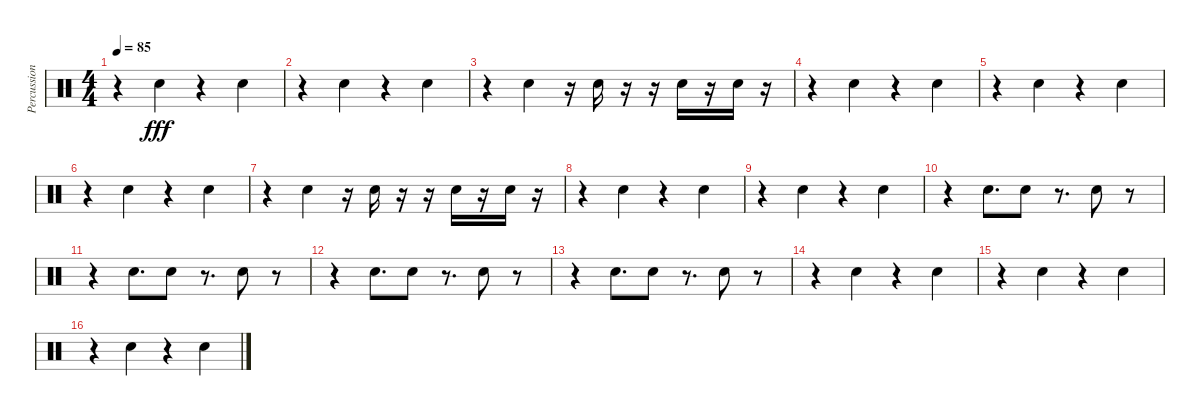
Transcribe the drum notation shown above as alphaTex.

\track ("Percussion" "Percussion") {instrument percussion}
\staff {score}
\articulation defaults
\ts (4 4)
\tempo 85
\clef neutral
\ks c
r.4{dy fff} "Snare (hit) 2".4 r.4 "Snare (hit) 2".4 |
r.4 "Snare (hit) 2".4 r.4 "Snare (hit) 2".4 |
r.4 "Snare (hit) 2".4 r.16 "Snare (hit) 2".16 r.16 r.16 "Snare (hit) 2".16 r.16 "Snare (hit) 2".16 r.16 |
r.4 "Snare (hit) 2".4 r.4 "Snare (hit) 2".4 |
r.4 "Snare (hit) 2".4 r.4 "Snare (hit) 2".4 |
r.4 "Snare (hit) 2".4 r.4 "Snare (hit) 2".4 |
r.4 "Snare (hit) 2".4 r.16 "Snare (hit) 2".16 r.16 r.16 "Snare (hit) 2".16 r.16 "Snare (hit) 2".16 r.16 |
r.4 "Snare (hit) 2".4 r.4 "Snare (hit) 2".4 |
r.4 "Snare (hit) 2".4 r.4 "Snare (hit) 2".4 |
r.4 "Snare (hit) 2".8{d} "Snare (hit) 2".8 r.8{d} "Snare (hit) 2".8 r.8 |
r.4 "Snare (hit) 2".8{d} "Snare (hit) 2".8 r.8{d} "Snare (hit) 2".8 r.8 |
r.4 "Snare (hit) 2".8{d} "Snare (hit) 2".8 r.8{d} "Snare (hit) 2".8 r.8 |
r.4 "Snare (hit) 2".8{d} "Snare (hit) 2".8 r.8{d} "Snare (hit) 2".8 r.8 |
r.4 "Snare (hit) 2".4 r.4 "Snare (hit) 2".4 |
r.4 "Snare (hit) 2".4 r.4 "Snare (hit) 2".4 |
r.4 "Snare (hit) 2".4 r.4 "Snare (hit) 2".4
